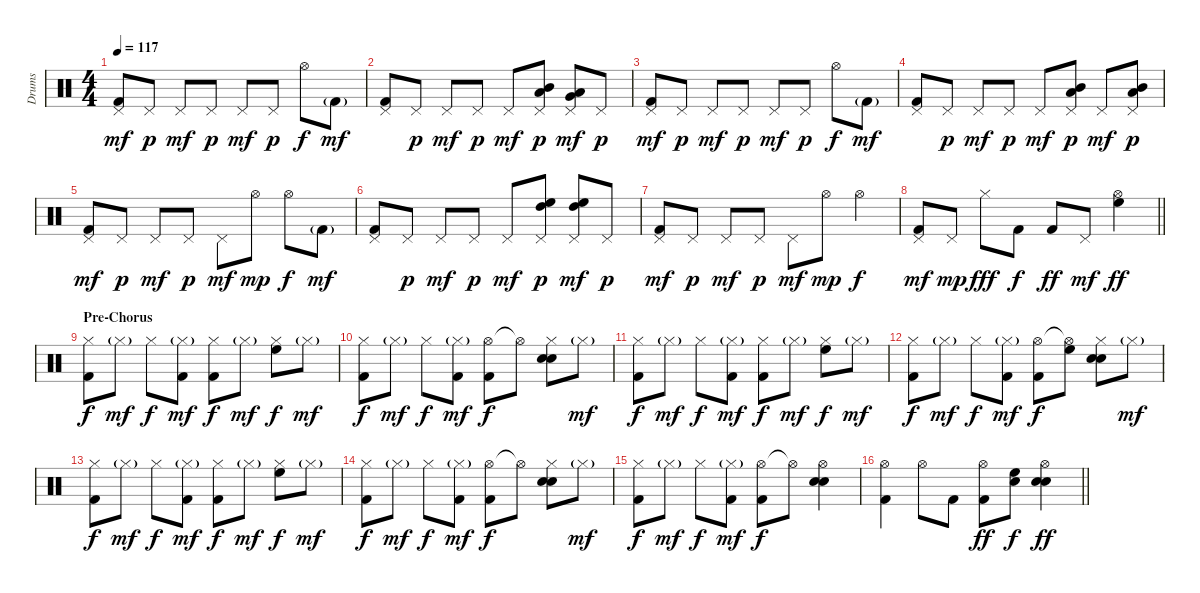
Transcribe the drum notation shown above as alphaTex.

\track ("Drums" "Drums") {instrument percussion}
\staff {score}
\articulation defaults
\ts (4 4)
\tempo 117
\clef neutral
\ks c
("Pedal Hi-Hat (hit)" "Kick (hit) 2").8{dy mf} "Pedal Hi-Hat (hit)".8{dy p} "Pedal Hi-Hat (hit)".8{dy mf} "Pedal Hi-Hat (hit)".8{dy p} "Pedal Hi-Hat (hit)".8{dy mf} "Pedal Hi-Hat (hit)".8{dy p} "Hi-Hat (open)".8{dy f} "Kick (hit) 2"{g}.8{dy mf} |
("Pedal Hi-Hat (hit)" "Kick (hit) 2").8 "Pedal Hi-Hat (hit)".8{dy p} "Pedal Hi-Hat (hit)".8{dy mf} "Pedal Hi-Hat (hit)".8{dy p} "Pedal Hi-Hat (hit)".8{dy mf} ("Pedal Hi-Hat (hit)" "Mid Tom (hit)" "Low Tom (hit)").8{dy p} ("Pedal Hi-Hat (hit)" "Low Tom (hit)" "Very Low Tom (hit)").8{dy mf} "Pedal Hi-Hat (hit)".8{dy p} |
("Pedal Hi-Hat (hit)" "Kick (hit) 2").8{dy mf} "Pedal Hi-Hat (hit)".8{dy p} "Pedal Hi-Hat (hit)".8{dy mf} "Pedal Hi-Hat (hit)".8{dy p} "Pedal Hi-Hat (hit)".8{dy mf} "Pedal Hi-Hat (hit)".8{dy p} "Hi-Hat (open)".8{dy f} "Kick (hit) 2"{g}.8{dy mf} |
("Pedal Hi-Hat (hit)" "Kick (hit) 2").8 "Pedal Hi-Hat (hit)".8{dy p} "Pedal Hi-Hat (hit)".8{dy mf} "Pedal Hi-Hat (hit)".8{dy p} "Pedal Hi-Hat (hit)".8{dy mf} ("Pedal Hi-Hat (hit)" "Mid Tom (hit)" "Low Tom (hit)").8{dy p} "Pedal Hi-Hat (hit)".8{dy mf} ("Pedal Hi-Hat (hit)" "Mid Tom (hit)" "Low Tom (hit)").8{dy p} |
("Pedal Hi-Hat (hit)" "Kick (hit) 2").8{dy mf} "Pedal Hi-Hat (hit)".8{dy p} "Pedal Hi-Hat (hit)".8{dy mf} "Pedal Hi-Hat (hit)".8{dy p} "Pedal Hi-Hat (hit)".8{dy mf} "Hi-Hat (open)".8{dy mp} "Hi-Hat (open)".8{dy f} "Kick (hit) 2"{g}.8{dy mf} |
("Pedal Hi-Hat (hit)" "Kick (hit) 2").8 "Pedal Hi-Hat (hit)".8{dy p} "Pedal Hi-Hat (hit)".8{dy mf} "Pedal Hi-Hat (hit)".8{dy p} "Pedal Hi-Hat (hit)".8{dy mf} ("Pedal Hi-Hat (hit)" "High Tom (hit)" "High Floor Tom (hit)").8{dy p} ("Pedal Hi-Hat (hit)" "High Tom (hit)" "High Floor Tom (hit)").8{dy mf} "Pedal Hi-Hat (hit)".8{dy p} |
("Pedal Hi-Hat (hit)" "Kick (hit) 2").8{dy mf} "Pedal Hi-Hat (hit)".8{dy p} "Pedal Hi-Hat (hit)".8{dy mf} "Pedal Hi-Hat (hit)".8{dy p} "Pedal Hi-Hat (hit)".8{dy mf} "Hi-Hat (open)".8{dy mp} "Hi-Hat (open)".4{dy f} |
\barLineRight lightlight
("Pedal Hi-Hat (hit)" "Kick (hit) 2").8{dy mf} "Pedal Hi-Hat (hit)".8{dy mp} "Hi-Hat (closed)".8{dy fff} "Kick (hit) 2".8{dy f} "Kick (hit) 2".8{dy ff} "Pedal Hi-Hat (hit)".8{dy mf} ("Hi-Hat (open)" "High Floor Tom (hit)").4{dy ff} |
\section ("" "Pre-Chorus")
("Hi-Hat (closed)" "Kick (hit) 2").8{dy f} "Hi-Hat (closed)"{g}.8{dy mf} "Hi-Hat (closed)".8{dy f} ("Hi-Hat (closed)"{g} "Kick (hit) 2").8{dy mf} ("Hi-Hat (closed)" "Kick (hit) 2").8{dy f} "Hi-Hat (closed)"{g}.8{dy mf} ("Hi-Hat (closed)" "High Floor Tom (hit)").8{dy f} "Hi-Hat (closed)"{g}.8{dy mf} |
("Hi-Hat (closed)" "Kick (hit) 2").8{dy f} "Hi-Hat (closed)"{g}.8{dy mf} "Hi-Hat (closed)".8{dy f} ("Hi-Hat (closed)"{g} "Kick (hit) 2").8{dy mf} ("Hi-Hat (open)" "Kick (hit) 2").8{dy f} "Hi-Hat (open)"{t}.8 ("Hi-Hat (closed)" "Snare (hit) 2" "Snare (hit) 2").8 "Hi-Hat (closed)"{g}.8{dy mf} |
("Hi-Hat (closed)" "Kick (hit) 2").8{dy f} "Hi-Hat (closed)"{g}.8{dy mf} "Hi-Hat (closed)".8{dy f} ("Hi-Hat (closed)"{g} "Kick (hit) 2").8{dy mf} ("Hi-Hat (closed)" "Kick (hit) 2").8{dy f} "Hi-Hat (closed)"{g}.8{dy mf} ("Hi-Hat (closed)" "High Floor Tom (hit)").8{dy f} "Hi-Hat (closed)"{g}.8{dy mf} |
("Hi-Hat (closed)" "Kick (hit) 2").8{dy f} "Hi-Hat (closed)"{g}.8{dy mf} "Hi-Hat (closed)".8{dy f} ("Hi-Hat (closed)"{g} "Kick (hit) 2").8{dy mf} ("Hi-Hat (open)" "Kick (hit) 2").8{dy f} ("Hi-Hat (open)"{t} "High Floor Tom (hit)").8 ("Hi-Hat (closed)" "Snare (hit) 2" "Snare (hit) 2").8 "Hi-Hat (closed)"{g}.8{dy mf} |
("Hi-Hat (closed)" "Kick (hit) 2").8{dy f} "Hi-Hat (closed)"{g}.8{dy mf} "Hi-Hat (closed)".8{dy f} ("Hi-Hat (closed)"{g} "Kick (hit) 2").8{dy mf} ("Hi-Hat (closed)" "Kick (hit) 2").8{dy f} "Hi-Hat (closed)"{g}.8{dy mf} ("Hi-Hat (closed)" "High Floor Tom (hit)").8{dy f} "Hi-Hat (closed)"{g}.8{dy mf} |
("Hi-Hat (closed)" "Kick (hit) 2").8{dy f} "Hi-Hat (closed)"{g}.8{dy mf} "Hi-Hat (closed)".8{dy f} ("Hi-Hat (closed)"{g} "Kick (hit) 2").8{dy mf} ("Hi-Hat (open)" "Kick (hit) 2").8{dy f} "Hi-Hat (open)"{t}.8 ("Hi-Hat (closed)" "Snare (hit) 2" "Snare (hit) 2").8 "Hi-Hat (closed)"{g}.8{dy mf} |
("Hi-Hat (closed)" "Kick (hit) 2").8{dy f} "Hi-Hat (closed)"{g}.8{dy mf} "Hi-Hat (closed)".8{dy f} ("Hi-Hat (closed)"{g} "Kick (hit) 2").8{dy mf} ("Hi-Hat (open)" "Kick (hit) 2").8{dy f} "Hi-Hat (open)"{t}.8 ("Hi-Hat (open)" "Snare (hit) 2" "Snare (hit) 2").4 |
\barLineRight lightlight
("Hi-Hat (open)" "Kick (hit) 2").4 "Hi-Hat (open)".8 "Kick (hit) 2".8 ("Hi-Hat (open)" "Kick (hit) 2").8{dy ff} ("High Floor Tom (hit)" "Snare (hit) 2").8{dy f} ("Hi-Hat (open)" "Snare (hit) 2" "Snare (hit) 2").4{dy ff}
